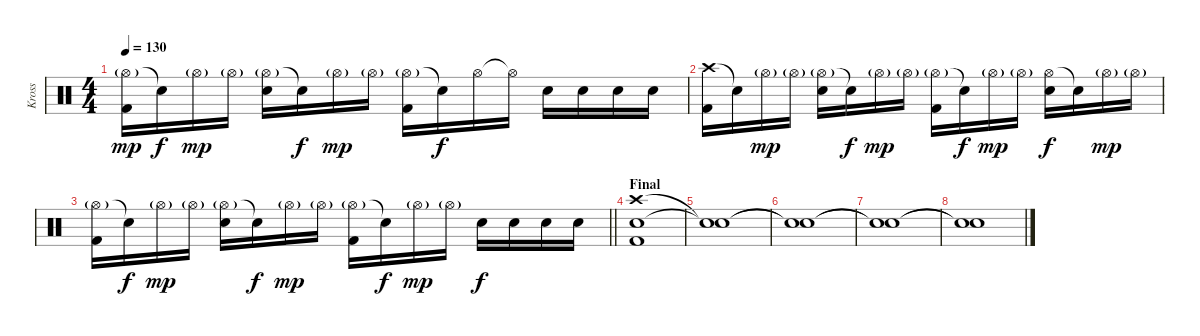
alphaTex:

\track ("Kross" "Kross") {instrument percussion}
\staff {score}
\articulation defaults
\ts (4 4)
\tempo 130
\clef neutral
\ks c
("Hi-Hat (open)"{g} "Kick (hit) 2").16{dy mp} "Snare (hit)"{t}.16{dy f} "Hi-Hat (open)"{g}.16{dy mp} "Hi-Hat (open)"{g}.16 ("Hi-Hat (open)"{g} "Electric Snare (hit)").16 "Snare (hit)"{t}.16{dy f} "Hi-Hat (open)"{g}.16{dy mp} "Hi-Hat (open)"{g}.16 ("Hi-Hat (open)"{g} "Kick (hit) 2").16 "Snare (hit)"{t}.16{dy f} "Hi-Hat (open)".16 "Hi-Hat (open)"{t}.16 "Electric Snare (hit)".16 "Electric Snare (hit)".16 "Electric Snare (hit)".16 "Electric Snare (hit)".16 |
("Crash high (hit)" "Kick (hit) 2").16 "Snare (hit)"{t}.16 "Hi-Hat (open)"{g}.16{dy mp} "Hi-Hat (open)"{g}.16 ("Hi-Hat (open)"{g} "Electric Snare (hit)").16 "Snare (hit)"{t}.16{dy f} "Hi-Hat (open)"{g}.16{dy mp} "Hi-Hat (open)"{g}.16 ("Hi-Hat (open)"{g} "Kick (hit) 2").16 "Snare (hit)"{t}.16{dy f} "Hi-Hat (open)"{g}.16{dy mp} "Hi-Hat (open)"{g}.16 ("Hi-Hat (open)" "Electric Snare (hit)").16{dy f} "Snare (hit)"{t}.16 "Hi-Hat (open)"{g}.16{dy mp} "Hi-Hat (open)"{g}.16 |
\barLineRight lightlight
("Hi-Hat (open)"{g} "Kick (hit) 2").16 "Snare (hit)"{t}.16{dy f} "Hi-Hat (open)"{g}.16{dy mp} "Hi-Hat (open)"{g}.16 ("Hi-Hat (open)"{g} "Electric Snare (hit)").16 "Snare (hit)"{t}.16{dy f} "Hi-Hat (open)"{g}.16{dy mp} "Hi-Hat (open)"{g}.16 ("Hi-Hat (open)"{g} "Kick (hit) 2").16 "Snare (hit)"{t}.16{dy f} "Hi-Hat (open)"{g}.16{dy mp} "Hi-Hat (open)"{g}.16 "Electric Snare (hit)".16{dy f} "Electric Snare (hit)".16 "Electric Snare (hit)".16 "Electric Snare (hit)".16 |
\section ("" "Final")
("Crash high (hit)" "Electric Snare (hit)" "Kick (hit) 2").1 |
("Snare (hit)"{t} "Snare (hit)"{t}).1 |
("Snare (hit)"{t} "Snare (hit)"{t}).1 |
("Snare (hit)"{t} "Snare (hit)"{t}).1 |
("Snare (hit)"{t} "Snare (hit)"{t}).1
